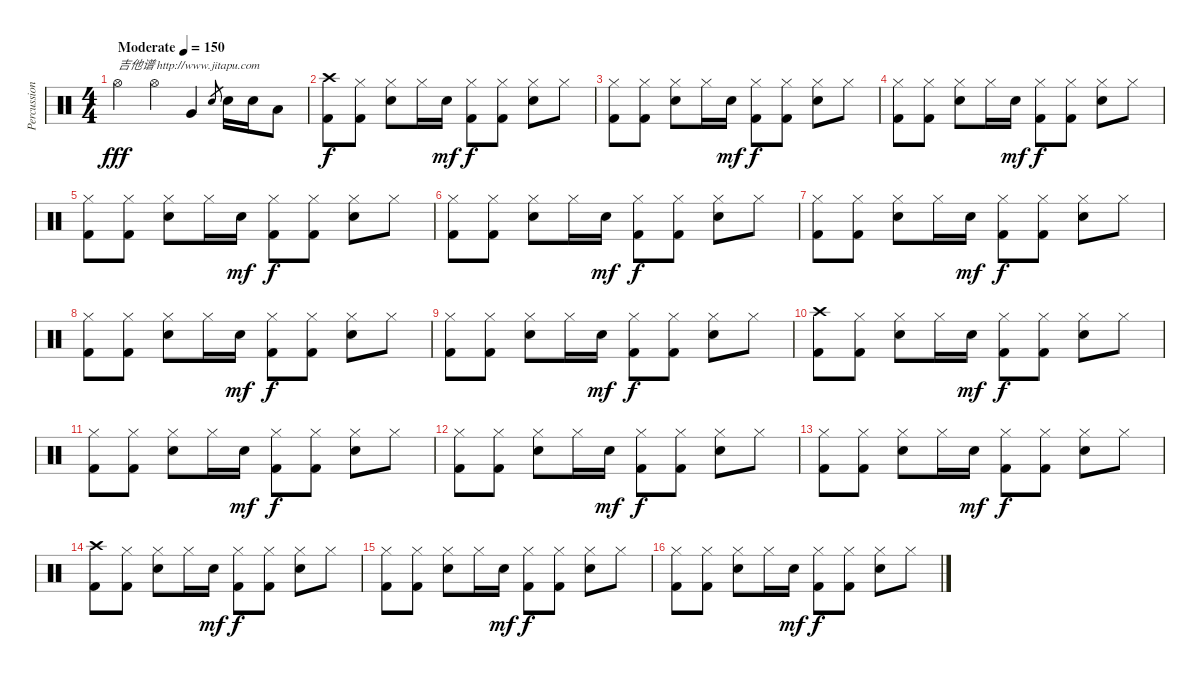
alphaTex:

\track ("Percussion" "Percussion") {instrument percussion}
\staff {score}
\articulation defaults
\ts (4 4)
\tempo (150 "Moderate")
\clef neutral
\ks c "Hi-Hat (open)".4{txt "吉他谱 http://www.jitapu.com" dy fff} "Hi-Hat (open)".4 "Very Low Tom (hit)".4 "Snare (hit) 2".8{gr} "Snare (hit) 2".16 "Snare (hit) 2".16 "Low Floor Tom (hit)".8
|
("Kick (hit) 2" "Crash high (hit)").8{dy f} ("Kick (hit) 2" "Hi-Hat (closed)").8 ("Electric Snare (hit)" "Hi-Hat (closed)").8 "Hi-Hat (closed)".16 "Electric Snare (hit)".16{dy mf} ("Kick (hit) 2" "Hi-Hat (closed)").8{dy f} ("Kick (hit) 2" "Hi-Hat (closed)").8 ("Electric Snare (hit)" "Hi-Hat (closed)").8 "Hi-Hat (closed)".8 |
("Kick (hit) 2" "Hi-Hat (closed)").8 ("Kick (hit) 2" "Hi-Hat (closed)").8 ("Electric Snare (hit)" "Hi-Hat (closed)").8 "Hi-Hat (closed)".16 "Electric Snare (hit)".16{dy mf} ("Kick (hit) 2" "Hi-Hat (closed)").8{dy f} ("Kick (hit) 2" "Hi-Hat (closed)").8 ("Electric Snare (hit)" "Hi-Hat (closed)").8 "Hi-Hat (closed)".8 |
("Kick (hit) 2" "Hi-Hat (closed)").8 ("Kick (hit) 2" "Hi-Hat (closed)").8 ("Electric Snare (hit)" "Hi-Hat (closed)").8 "Hi-Hat (closed)".16 "Electric Snare (hit)".16{dy mf} ("Kick (hit) 2" "Hi-Hat (closed)").8{dy f} ("Kick (hit) 2" "Hi-Hat (closed)").8 ("Electric Snare (hit)" "Hi-Hat (closed)").8 "Hi-Hat (closed)".8 |
("Kick (hit) 2" "Hi-Hat (closed)").8 ("Kick (hit) 2" "Hi-Hat (closed)").8 ("Electric Snare (hit)" "Hi-Hat (closed)").8 "Hi-Hat (closed)".16 "Electric Snare (hit)".16{dy mf} ("Kick (hit) 2" "Hi-Hat (closed)").8{dy f} ("Kick (hit) 2" "Hi-Hat (closed)").8 ("Electric Snare (hit)" "Hi-Hat (closed)").8 "Hi-Hat (closed)".8 |
("Kick (hit) 2" "Hi-Hat (closed)").8 ("Kick (hit) 2" "Hi-Hat (closed)").8 ("Electric Snare (hit)" "Hi-Hat (closed)").8 "Hi-Hat (closed)".16 "Electric Snare (hit)".16{dy mf} ("Kick (hit) 2" "Hi-Hat (closed)").8{dy f} ("Kick (hit) 2" "Hi-Hat (closed)").8 ("Electric Snare (hit)" "Hi-Hat (closed)").8 "Hi-Hat (closed)".8 |
("Kick (hit) 2" "Hi-Hat (closed)").8 ("Kick (hit) 2" "Hi-Hat (closed)").8 ("Electric Snare (hit)" "Hi-Hat (closed)").8 "Hi-Hat (closed)".16 "Electric Snare (hit)".16{dy mf} ("Kick (hit) 2" "Hi-Hat (closed)").8{dy f} ("Kick (hit) 2" "Hi-Hat (closed)").8 ("Electric Snare (hit)" "Hi-Hat (closed)").8 "Hi-Hat (closed)".8 |
("Kick (hit) 2" "Hi-Hat (closed)").8 ("Kick (hit) 2" "Hi-Hat (closed)").8 ("Electric Snare (hit)" "Hi-Hat (closed)").8 "Hi-Hat (closed)".16 "Electric Snare (hit)".16{dy mf} ("Kick (hit) 2" "Hi-Hat (closed)").8{dy f} ("Kick (hit) 2" "Hi-Hat (closed)").8 ("Electric Snare (hit)" "Hi-Hat (closed)").8 "Hi-Hat (closed)".8 |
("Kick (hit) 2" "Hi-Hat (closed)").8 ("Kick (hit) 2" "Hi-Hat (closed)").8 ("Electric Snare (hit)" "Hi-Hat (closed)").8 "Hi-Hat (closed)".16 "Electric Snare (hit)".16{dy mf} ("Kick (hit) 2" "Hi-Hat (closed)").8{dy f} ("Kick (hit) 2" "Hi-Hat (closed)").8 ("Electric Snare (hit)" "Hi-Hat (closed)").8 "Hi-Hat (closed)".8 |
("Kick (hit) 2" "Crash high (hit)").8 ("Kick (hit) 2" "Hi-Hat (closed)").8 ("Electric Snare (hit)" "Hi-Hat (closed)").8 "Hi-Hat (closed)".16 "Electric Snare (hit)".16{dy mf} ("Kick (hit) 2" "Hi-Hat (closed)").8{dy f} ("Kick (hit) 2" "Hi-Hat (closed)").8 ("Electric Snare (hit)" "Hi-Hat (closed)").8 "Hi-Hat (closed)".8 |
("Kick (hit) 2" "Hi-Hat (closed)").8 ("Kick (hit) 2" "Hi-Hat (closed)").8 ("Electric Snare (hit)" "Hi-Hat (closed)").8 "Hi-Hat (closed)".16 "Electric Snare (hit)".16{dy mf} ("Kick (hit) 2" "Hi-Hat (closed)").8{dy f} ("Kick (hit) 2" "Hi-Hat (closed)").8 ("Electric Snare (hit)" "Hi-Hat (closed)").8 "Hi-Hat (closed)".8 |
("Kick (hit) 2" "Hi-Hat (closed)").8 ("Kick (hit) 2" "Hi-Hat (closed)").8 ("Electric Snare (hit)" "Hi-Hat (closed)").8 "Hi-Hat (closed)".16 "Electric Snare (hit)".16{dy mf} ("Kick (hit) 2" "Hi-Hat (closed)").8{dy f} ("Kick (hit) 2" "Hi-Hat (closed)").8 ("Electric Snare (hit)" "Hi-Hat (closed)").8 "Hi-Hat (closed)".8 |
("Kick (hit) 2" "Hi-Hat (closed)").8 ("Kick (hit) 2" "Hi-Hat (closed)").8 ("Electric Snare (hit)" "Hi-Hat (closed)").8 "Hi-Hat (closed)".16 "Electric Snare (hit)".16{dy mf} ("Kick (hit) 2" "Hi-Hat (closed)").8{dy f} ("Kick (hit) 2" "Hi-Hat (closed)").8 ("Electric Snare (hit)" "Hi-Hat (closed)").8 "Hi-Hat (closed)".8 |
("Kick (hit) 2" "Crash high (hit)").8 ("Kick (hit) 2" "Hi-Hat (closed)").8 ("Electric Snare (hit)" "Hi-Hat (closed)").8 "Hi-Hat (closed)".16 "Electric Snare (hit)".16{dy mf} ("Kick (hit) 2" "Hi-Hat (closed)").8{dy f} ("Kick (hit) 2" "Hi-Hat (closed)").8 ("Electric Snare (hit)" "Hi-Hat (closed)").8 "Hi-Hat (closed)".8 |
("Kick (hit) 2" "Hi-Hat (closed)").8 ("Kick (hit) 2" "Hi-Hat (closed)").8 ("Electric Snare (hit)" "Hi-Hat (closed)").8 "Hi-Hat (closed)".16 "Electric Snare (hit)".16{dy mf} ("Kick (hit) 2" "Hi-Hat (closed)").8{dy f} ("Kick (hit) 2" "Hi-Hat (closed)").8 ("Electric Snare (hit)" "Hi-Hat (closed)").8 "Hi-Hat (closed)".8 |
("Kick (hit) 2" "Hi-Hat (closed)").8 ("Kick (hit) 2" "Hi-Hat (closed)").8 ("Electric Snare (hit)" "Hi-Hat (closed)").8 "Hi-Hat (closed)".16 "Electric Snare (hit)".16{dy mf} ("Kick (hit) 2" "Hi-Hat (closed)").8{dy f} ("Kick (hit) 2" "Hi-Hat (closed)").8 ("Electric Snare (hit)" "Hi-Hat (closed)").8 "Hi-Hat (closed)".8
